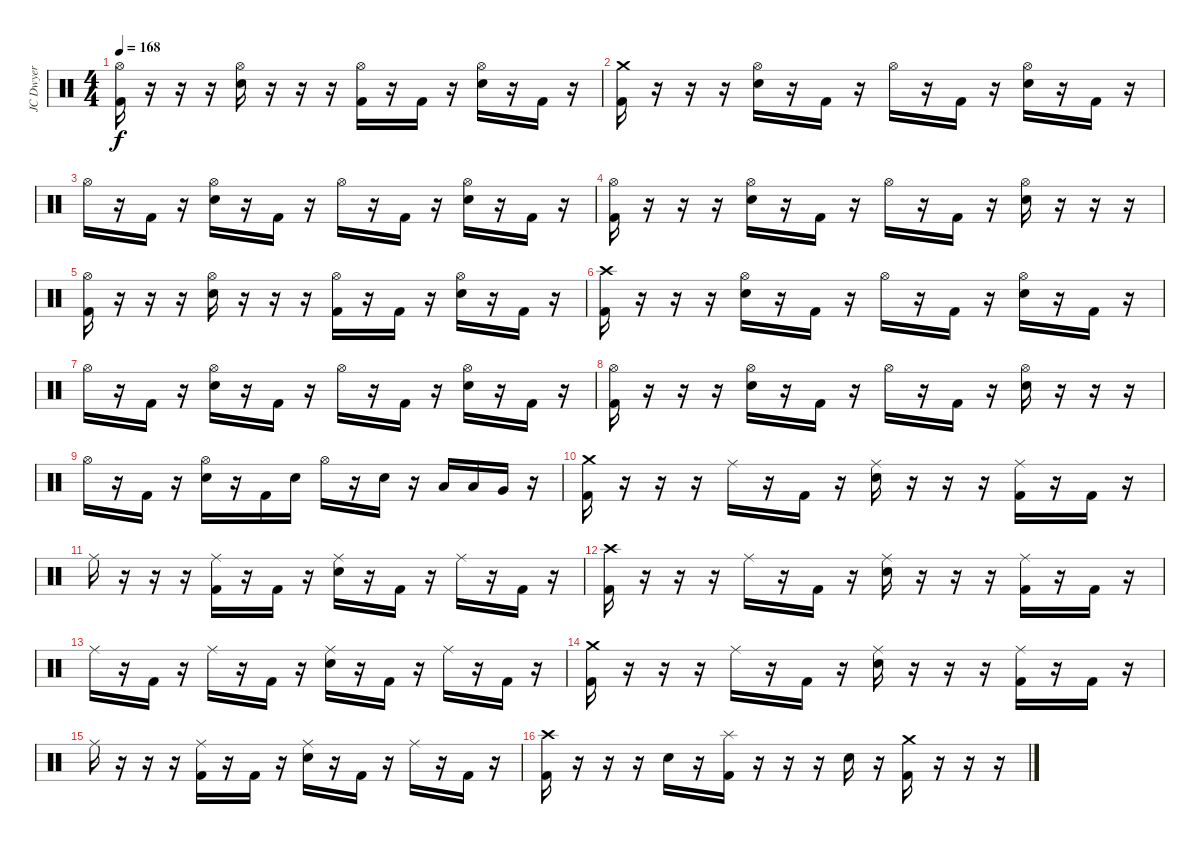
\track ("JC Dwyer" "JC Dwyer") {instrument percussion}
\staff {score}
\articulation defaults
\ts (4 4)
\tempo 168
\clef neutral
\ks c
("Hi-Hat (open)" "Kick (hit) 2").16{dy f} r.16 r.16 r.16 ("Hi-Hat (open)" "Electric Snare (hit)").16 r.16 r.16 r.16 ("Hi-Hat (open)" "Kick (hit) 2").16 r.16 "Kick (hit) 2".16 r.16 ("Hi-Hat (open)" "Electric Snare (hit)").16 r.16 "Kick (hit) 2".16 r.16 |
("Crash medium (hit)" "Kick (hit) 2").16 r.16 r.16 r.16 ("Hi-Hat (open)" "Electric Snare (hit)").16 r.16 "Kick (hit) 2".16 r.16 "Hi-Hat (open)".16 r.16 "Kick (hit) 2".16 r.16 ("Hi-Hat (open)" "Electric Snare (hit)").16 r.16 "Kick (hit) 2".16 r.16 |
"Hi-Hat (open)".16 r.16 "Kick (hit) 2".16 r.16 ("Hi-Hat (open)" "Electric Snare (hit)").16 r.16 "Kick (hit) 2".16 r.16 "Hi-Hat (open)".16 r.16 "Kick (hit) 2".16 r.16 ("Hi-Hat (open)" "Electric Snare (hit)").16 r.16 "Kick (hit) 2".16 r.16 |
("Hi-Hat (open)" "Kick (hit) 2").16 r.16 r.16 r.16 ("Hi-Hat (open)" "Electric Snare (hit)").16 r.16 "Kick (hit) 2".16 r.16 "Hi-Hat (open)".16 r.16 "Kick (hit) 2".16 r.16 ("Hi-Hat (open)" "Electric Snare (hit)").16 r.16 r.16 r.16 |
("Hi-Hat (open)" "Kick (hit) 2").16 r.16 r.16 r.16 ("Hi-Hat (open)" "Electric Snare (hit)").16 r.16 r.16 r.16 ("Hi-Hat (open)" "Kick (hit) 2").16 r.16 "Kick (hit) 2".16 r.16 ("Hi-Hat (open)" "Electric Snare (hit)").16 r.16 "Kick (hit) 2".16 r.16 |
("Crash high (hit)" "Kick (hit) 2").16 r.16 r.16 r.16 ("Hi-Hat (open)" "Electric Snare (hit)").16 r.16 "Kick (hit) 2".16 r.16 "Hi-Hat (open)".16 r.16 "Kick (hit) 2".16 r.16 ("Hi-Hat (open)" "Electric Snare (hit)").16 r.16 "Kick (hit) 2".16 r.16 |
"Hi-Hat (open)".16 r.16 "Kick (hit) 2".16 r.16 ("Hi-Hat (open)" "Electric Snare (hit)").16 r.16 "Kick (hit) 2".16 r.16 "Hi-Hat (open)".16 r.16 "Kick (hit) 2".16 r.16 ("Hi-Hat (open)" "Electric Snare (hit)").16 r.16 "Kick (hit) 2".16 r.16 |
("Hi-Hat (open)" "Kick (hit) 2").16 r.16 r.16 r.16 ("Hi-Hat (open)" "Electric Snare (hit)").16 r.16 "Kick (hit) 2".16 r.16 "Hi-Hat (open)".16 r.16 "Kick (hit) 2".16 r.16 ("Hi-Hat (open)" "Electric Snare (hit)").16 r.16 r.16 r.16 |
"Hi-Hat (open)".16 r.16 "Kick (hit) 2".16 r.16 ("Hi-Hat (open)" "Electric Snare (hit)").16 r.16 "Kick (hit) 2".16 "Electric Snare (hit)".16 "Hi-Hat (open)".16 r.16 "Electric Snare (hit)".16 r.16 "Low Tom (hit)".16 "Low Tom (hit)".16 "Very Low Tom (hit)".16 r.16 |
("Crash medium (hit)" "Kick (hit) 2").16 r.16 r.16 r.16 "Ride (middle)".16 r.16 "Kick (hit) 2".16 r.16 ("Ride (middle)" "Electric Snare (hit)").16 r.16 r.16 r.16 ("Ride (middle)" "Kick (hit) 2").16 r.16 "Kick (hit) 2".16 r.16 |
"Ride (middle)".16 r.16 r.16 r.16 ("Ride (middle)" "Kick (hit) 2").16 r.16 "Kick (hit) 2".16 r.16 ("Ride (middle)" "Electric Snare (hit)").16 r.16 "Kick (hit) 2".16 r.16 "Ride (middle)".16 r.16 "Kick (hit) 2".16 r.16 |
("Crash high (hit)" "Kick (hit) 2").16 r.16 r.16 r.16 "Ride (middle)".16 r.16 "Kick (hit) 2".16 r.16 ("Ride (middle)" "Electric Snare (hit)").16 r.16 r.16 r.16 ("Ride (middle)" "Kick (hit) 2").16 r.16 "Kick (hit) 2".16 r.16 |
"Ride (middle)".16 r.16 "Kick (hit) 2".16 r.16 "Ride (middle)".16 r.16 "Kick (hit) 2".16 r.16 ("Ride (middle)" "Electric Snare (hit)").16 r.16 "Kick (hit) 2".16 r.16 "Ride (middle)".16 r.16 "Kick (hit) 2".16 r.16 |
("Crash medium (hit)" "Kick (hit) 2").16 r.16 r.16 r.16 "Ride (middle)".16 r.16 "Kick (hit) 2".16 r.16 ("Ride (middle)" "Electric Snare (hit)").16 r.16 r.16 r.16 ("Ride (middle)" "Kick (hit) 2").16 r.16 "Kick (hit) 2".16 r.16 |
"Ride (middle)".16 r.16 r.16 r.16 ("Ride (middle)" "Kick (hit) 2").16 r.16 "Kick (hit) 2".16 r.16 ("Ride (middle)" "Electric Snare (hit)").16 r.16 "Kick (hit) 2".16 r.16 "Ride (middle)".16 r.16 "Kick (hit) 2".16 r.16 |
("Crash high (hit)" "Kick (hit) 2").16 r.16 r.16 r.16 "Electric Snare (hit)".16 r.16 ("Splash (hit)" "Kick (hit) 2").16 r.16 r.16 r.16 "Electric Snare (hit)".16 r.16 ("Crash medium (hit)" "Kick (hit) 2").16 r.16 r.16 r.16
